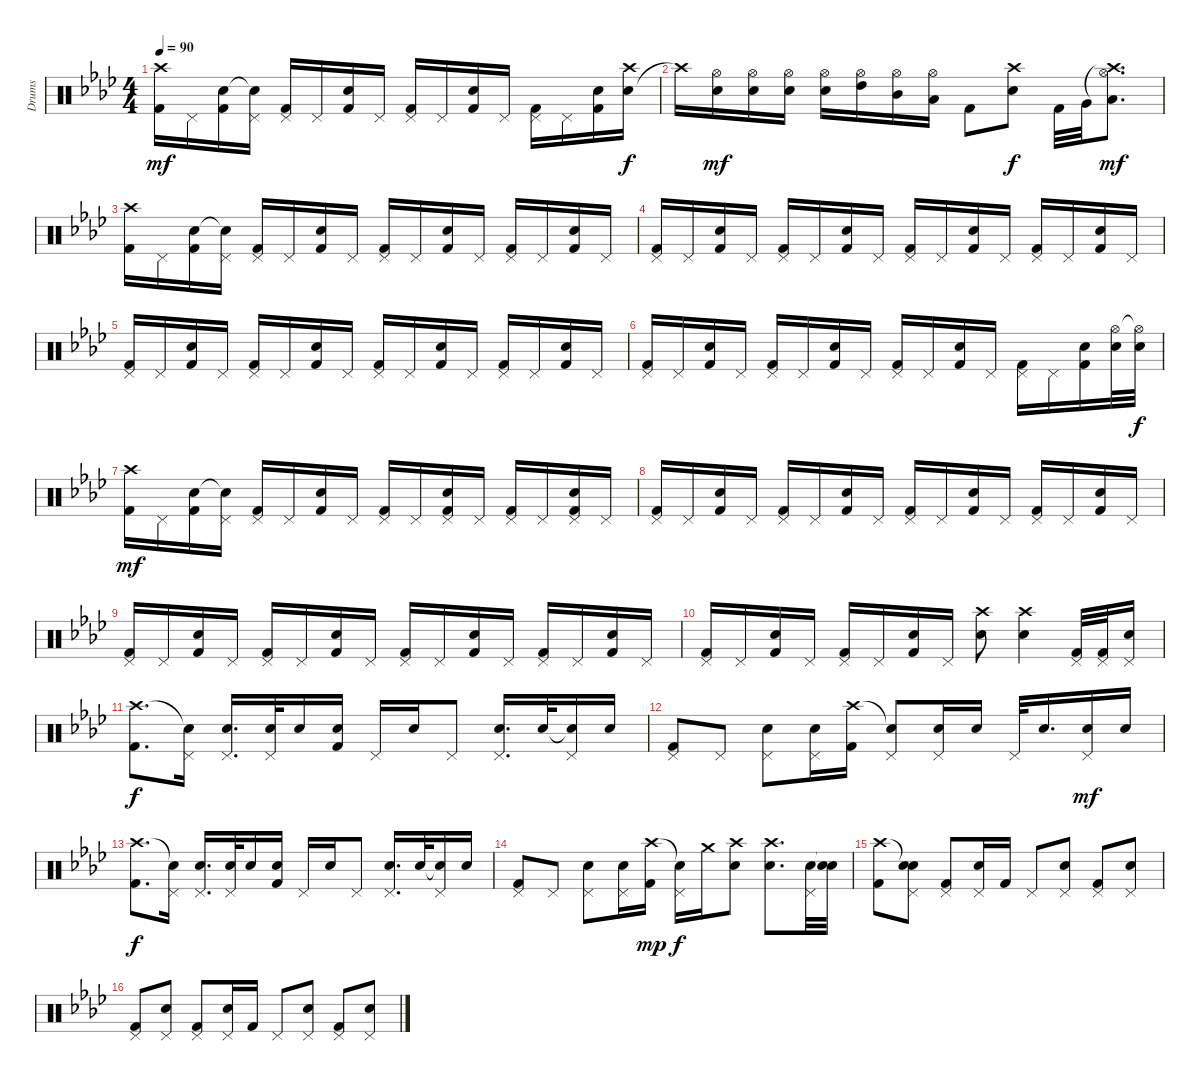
\track ("Drums" "Drums") {instrument percussion}
\staff {score}
\articulation defaults
\ts (4 4)
\tempo 90
\clef neutral
\ks ab
("Crash high (hit)" "Kick (hit) 2").16{dy mf} "Pedal Hi-Hat (hit)".16 ("Snare (hit) 2" "Kick (hit) 2").16 ("Snare (hit)"{t} "Pedal Hi-Hat (hit)").16 ("Pedal Hi-Hat (hit)" "Kick (hit) 2").16 "Pedal Hi-Hat (hit)".16 ("Snare (hit) 2" "Kick (hit) 2").16 "Pedal Hi-Hat (hit)".16 ("Pedal Hi-Hat (hit)" "Kick (hit) 2").16 "Pedal Hi-Hat (hit)".16 ("Snare (hit) 2" "Kick (hit) 2").16 "Pedal Hi-Hat (hit)".16 ("Pedal Hi-Hat (hit)" "Kick (hit) 2").16 "Pedal Hi-Hat (hit)".16 ("Snare (hit) 2" "Kick (hit) 2").16 ("Snare (hit) 2" "Crash high (hit)").16{dy f} |
"Crash high (hit)"{t}.16 ("Snare (hit) 2" "Hi-Hat (open)").16{dy mf} ("Snare (hit) 2" "Hi-Hat (open)").16 ("Hi-Hat (open)" "Snare (hit) 2").16 ("Snare (hit) 2" "Hi-Hat (open)").16 ("Hi-Hat (open)" "High Tom (hit)").16 ("Hi-Hat (open)" "Mid Tom (hit)").16 ("Hi-Hat (open)" "Low Tom (hit)").16 "Kick (hit) 2".8 ("Crash high (hit)" "Snare (hit) 2").8{dy f} "Kick (hit) 2".32 "Very Low Tom (hit)".32 ("Crash high (hit)"{t} "Hi-Hat (open)" "Low Floor Tom (hit)").8{d dy mf} |
("Crash high (hit)" "Kick (hit) 2").16 "Pedal Hi-Hat (hit)".16 ("Snare (hit) 2" "Kick (hit) 2").16 ("Snare (hit)"{t} "Pedal Hi-Hat (hit)").16 ("Pedal Hi-Hat (hit)" "Kick (hit) 2").16 "Pedal Hi-Hat (hit)".16 ("Snare (hit) 2" "Kick (hit) 2").16 "Pedal Hi-Hat (hit)".16 ("Pedal Hi-Hat (hit)" "Kick (hit) 2").16 "Pedal Hi-Hat (hit)".16 ("Snare (hit) 2" "Kick (hit) 2").16 "Pedal Hi-Hat (hit)".16 ("Pedal Hi-Hat (hit)" "Kick (hit) 2").16 "Pedal Hi-Hat (hit)".16 ("Snare (hit) 2" "Kick (hit) 2").16 "Pedal Hi-Hat (hit)".16 |
("Pedal Hi-Hat (hit)" "Kick (hit) 2").16 "Pedal Hi-Hat (hit)".16 ("Snare (hit) 2" "Kick (hit) 2").16 "Pedal Hi-Hat (hit)".16 ("Pedal Hi-Hat (hit)" "Kick (hit) 2").16 "Pedal Hi-Hat (hit)".16 ("Snare (hit) 2" "Kick (hit) 2").16 "Pedal Hi-Hat (hit)".16 ("Pedal Hi-Hat (hit)" "Kick (hit) 2").16 "Pedal Hi-Hat (hit)".16 ("Snare (hit) 2" "Kick (hit) 2").16 "Pedal Hi-Hat (hit)".16 ("Pedal Hi-Hat (hit)" "Kick (hit) 2").16 "Pedal Hi-Hat (hit)".16 ("Snare (hit) 2" "Kick (hit) 2").16 "Pedal Hi-Hat (hit)".16 |
("Pedal Hi-Hat (hit)" "Kick (hit) 2").16 "Pedal Hi-Hat (hit)".16 ("Snare (hit) 2" "Kick (hit) 2").16 "Pedal Hi-Hat (hit)".16 ("Pedal Hi-Hat (hit)" "Kick (hit) 2").16 "Pedal Hi-Hat (hit)".16 ("Snare (hit) 2" "Kick (hit) 2").16 "Pedal Hi-Hat (hit)".16 ("Pedal Hi-Hat (hit)" "Kick (hit) 2").16 "Pedal Hi-Hat (hit)".16 ("Snare (hit) 2" "Kick (hit) 2").16 "Pedal Hi-Hat (hit)".16 ("Pedal Hi-Hat (hit)" "Kick (hit) 2").16 "Pedal Hi-Hat (hit)".16 ("Snare (hit) 2" "Kick (hit) 2").16 "Pedal Hi-Hat (hit)".16 |
("Pedal Hi-Hat (hit)" "Kick (hit) 2").16 "Pedal Hi-Hat (hit)".16 ("Snare (hit) 2" "Kick (hit) 2").16 "Pedal Hi-Hat (hit)".16 ("Pedal Hi-Hat (hit)" "Kick (hit) 2").16 "Pedal Hi-Hat (hit)".16 ("Snare (hit) 2" "Kick (hit) 2").16 "Pedal Hi-Hat (hit)".16 ("Pedal Hi-Hat (hit)" "Kick (hit) 2").16 "Pedal Hi-Hat (hit)".16 ("Snare (hit) 2" "Kick (hit) 2").16 "Pedal Hi-Hat (hit)".16 ("Pedal Hi-Hat (hit)" "Kick (hit) 2").16 "Pedal Hi-Hat (hit)".16 ("Snare (hit) 2" "Kick (hit) 2").16 ("Snare (hit) 2" "Hi-Hat (open)").32 ("Snare (hit) 2" "Hi-Hat (open)"{t}).32{dy f} |
("Crash high (hit)" "Kick (hit) 2").16{dy mf} "Pedal Hi-Hat (hit)".16 ("Snare (hit) 2" "Kick (hit) 2").16 ("Snare (hit)"{t} "Pedal Hi-Hat (hit)").16 ("Pedal Hi-Hat (hit)" "Kick (hit) 2").16 "Pedal Hi-Hat (hit)".16 ("Snare (hit) 2" "Kick (hit) 2").16 "Pedal Hi-Hat (hit)".16 ("Pedal Hi-Hat (hit)" "Kick (hit) 2").16 "Pedal Hi-Hat (hit)".16 ("Snare (hit) 2" "Pedal Hi-Hat (hit)" "Kick (hit) 2").16 "Pedal Hi-Hat (hit)".16 ("Pedal Hi-Hat (hit)" "Kick (hit) 2").16 "Pedal Hi-Hat (hit)".16 ("Snare (hit) 2" "Pedal Hi-Hat (hit)" "Kick (hit) 2").16 "Pedal Hi-Hat (hit)".16 |
("Pedal Hi-Hat (hit)" "Kick (hit) 2").16 "Pedal Hi-Hat (hit)".16 ("Snare (hit) 2" "Kick (hit) 2").16 "Pedal Hi-Hat (hit)".16 ("Pedal Hi-Hat (hit)" "Kick (hit) 2").16 "Pedal Hi-Hat (hit)".16 ("Snare (hit) 2" "Kick (hit) 2").16 "Pedal Hi-Hat (hit)".16 ("Pedal Hi-Hat (hit)" "Kick (hit) 2").16 "Pedal Hi-Hat (hit)".16 ("Snare (hit) 2" "Kick (hit) 2").16 "Pedal Hi-Hat (hit)".16 ("Pedal Hi-Hat (hit)" "Kick (hit) 2").16 "Pedal Hi-Hat (hit)".16 ("Snare (hit) 2" "Kick (hit) 2").16 "Pedal Hi-Hat (hit)".16 |
("Pedal Hi-Hat (hit)" "Kick (hit) 2").16 "Pedal Hi-Hat (hit)".16 ("Snare (hit) 2" "Kick (hit) 2").16 "Pedal Hi-Hat (hit)".16 ("Pedal Hi-Hat (hit)" "Kick (hit) 2").16 "Pedal Hi-Hat (hit)".16 ("Snare (hit) 2" "Kick (hit) 2").16 "Pedal Hi-Hat (hit)".16 ("Pedal Hi-Hat (hit)" "Kick (hit) 2").16 "Pedal Hi-Hat (hit)".16 ("Snare (hit) 2" "Kick (hit) 2").16 "Pedal Hi-Hat (hit)".16 ("Pedal Hi-Hat (hit)" "Kick (hit) 2").16 "Pedal Hi-Hat (hit)".16 ("Snare (hit) 2" "Kick (hit) 2").16 "Pedal Hi-Hat (hit)".16 |
("Pedal Hi-Hat (hit)" "Kick (hit) 2").16 "Pedal Hi-Hat (hit)".16 ("Snare (hit) 2" "Kick (hit) 2").16 "Pedal Hi-Hat (hit)".16 ("Pedal Hi-Hat (hit)" "Kick (hit) 2").16 "Pedal Hi-Hat (hit)".16 ("Snare (hit) 2" "Kick (hit) 2").16 "Pedal Hi-Hat (hit)".16 ("Snare (hit) 2" "Crash high (hit)").8 ("Snare (hit) 2" "Crash high (hit)").4 ("Pedal Hi-Hat (hit)" "Kick (hit) 2").32 ("Pedal Hi-Hat (hit)" "Kick (hit) 2").32 ("Snare (hit) 2" "Pedal Hi-Hat (hit)").16 |
("Crash high (hit)" "Kick (hit) 2").8{d dy f} ("Snare (hit)"{t} "Pedal Hi-Hat (hit)").16 ("Snare (hit) 2" "Pedal Hi-Hat (hit)").16{d} ("Snare (hit) 2" "Pedal Hi-Hat (hit)").32 "Snare (hit) 2".16 ("Snare (hit) 2" "Kick (hit) 2").16 "Pedal Hi-Hat (hit)".16 "Snare (hit) 2".16 "Pedal Hi-Hat (hit)".8 ("Snare (hit) 2" "Pedal Hi-Hat (hit)").16{d} "Snare (hit) 2".32 ("Snare (hit)"{t} "Pedal Hi-Hat (hit)").16 "Snare (hit) 2".16 |
("Kick (hit) 2" "Pedal Hi-Hat (hit)").8 "Pedal Hi-Hat (hit)".8 ("Snare (hit) 2" "Pedal Hi-Hat (hit)").8 ("Snare (hit) 2" "Pedal Hi-Hat (hit)").16 ("Crash high (hit)" "Kick (hit) 2").16 ("Snare (hit)"{t} "Pedal Hi-Hat (hit)").8 ("Snare (hit) 2" "Pedal Hi-Hat (hit)").16 "Snare (hit) 2".16 "Pedal Hi-Hat (hit)".32 "Snare (hit) 2".16{d} ("Snare (hit) 2" "Pedal Hi-Hat (hit)").16{dy mf} "Snare (hit) 2".16 |
("Crash high (hit)" "Kick (hit) 2").8{d dy f} ("Snare (hit)"{t} "Pedal Hi-Hat (hit)").16 ("Snare (hit) 2" "Pedal Hi-Hat (hit)").16{d} ("Snare (hit) 2" "Pedal Hi-Hat (hit)").32 "Snare (hit) 2".16 ("Snare (hit) 2" "Kick (hit) 2").16 "Pedal Hi-Hat (hit)".16 "Snare (hit) 2".16 "Pedal Hi-Hat (hit)".8 ("Snare (hit) 2" "Pedal Hi-Hat (hit)").16{d} "Snare (hit) 2".32 ("Snare (hit)"{t} "Pedal Hi-Hat (hit)").16 "Snare (hit) 2".16 |
("Kick (hit) 2" "Pedal Hi-Hat (hit)").8 "Pedal Hi-Hat (hit)".8 ("Snare (hit) 2" "Pedal Hi-Hat (hit)").8 ("Snare (hit) 2" "Pedal Hi-Hat (hit)").16 ("Crash high (hit)" "Kick (hit) 2").16{dy mp} ("Snare (hit)"{t} "Pedal Hi-Hat (hit)").16{dy f} "Crash medium (hit)".16 ("Crash high (hit)" "Snare (hit) 2").8 ("Crash high (hit)" "Snare (hit) 2").8{d} ("Snare (hit) 2" "Pedal Hi-Hat (hit)").32 ("Snare (hit)"{t} "Snare (hit) 2").32 |
("Crash high (hit)" "Kick (hit) 2").8 ("Snare (hit)"{t} "Snare (hit) 2" "Pedal Hi-Hat (hit)").8 ("Kick (hit) 2" "Pedal Hi-Hat (hit)").8 ("Snare (hit) 2" "Pedal Hi-Hat (hit)").16 "Kick (hit) 2".16 "Pedal Hi-Hat (hit)".8 ("Snare (hit) 2" "Pedal Hi-Hat (hit)").8 ("Kick (hit) 2" "Pedal Hi-Hat (hit)").8 ("Snare (hit) 2" "Pedal Hi-Hat (hit)").8 |
("Kick (hit) 2" "Pedal Hi-Hat (hit)").8 ("Snare (hit) 2" "Pedal Hi-Hat (hit)").8 ("Kick (hit) 2" "Pedal Hi-Hat (hit)").8 ("Snare (hit) 2" "Pedal Hi-Hat (hit)").16 "Kick (hit) 2".16 "Pedal Hi-Hat (hit)".8 ("Snare (hit) 2" "Pedal Hi-Hat (hit)").8 ("Kick (hit) 2" "Pedal Hi-Hat (hit)").8 ("Snare (hit) 2" "Pedal Hi-Hat (hit)").8
